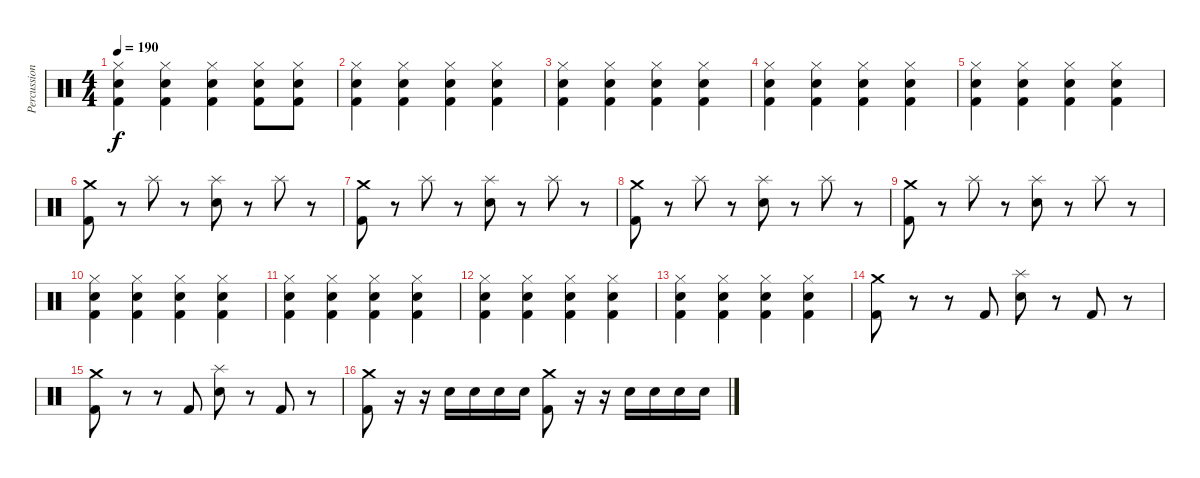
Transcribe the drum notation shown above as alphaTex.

\track ("Percussion" "Percussion") {instrument percussion}
\staff {score}
\articulation defaults
\ts (4 4)
\tempo 190
\clef neutral
\ks c
("Hi-Hat (closed)" "Electric Snare (hit)" "Kick (hit) 2").4{dy f} ("Hi-Hat (closed)" "Electric Snare (hit)" "Kick (hit) 2").4 ("Hi-Hat (closed)" "Electric Snare (hit)" "Kick (hit) 2").4 ("Hi-Hat (closed)" "Electric Snare (hit)" "Kick (hit) 2").8 ("Hi-Hat (closed)" "Electric Snare (hit)" "Kick (hit) 2").8 |
("Hi-Hat (closed)" "Electric Snare (hit)" "Kick (hit) 2").4 ("Hi-Hat (closed)" "Electric Snare (hit)" "Kick (hit) 2").4 ("Hi-Hat (closed)" "Electric Snare (hit)" "Kick (hit) 2").4 ("Hi-Hat (closed)" "Electric Snare (hit)" "Kick (hit) 2").4 |
("Hi-Hat (closed)" "Electric Snare (hit)" "Kick (hit) 2").4 ("Hi-Hat (closed)" "Electric Snare (hit)" "Kick (hit) 2").4 ("Hi-Hat (closed)" "Electric Snare (hit)" "Kick (hit) 2").4 ("Hi-Hat (closed)" "Electric Snare (hit)" "Kick (hit) 2").4 |
("Hi-Hat (closed)" "Electric Snare (hit)" "Kick (hit) 2").4 ("Hi-Hat (closed)" "Electric Snare (hit)" "Kick (hit) 2").4 ("Hi-Hat (closed)" "Electric Snare (hit)" "Kick (hit) 2").4 ("Hi-Hat (closed)" "Electric Snare (hit)" "Kick (hit) 2").4 |
("Hi-Hat (closed)" "Electric Snare (hit)" "Kick (hit) 2").4 ("Hi-Hat (closed)" "Electric Snare (hit)" "Kick (hit) 2").4 ("Hi-Hat (closed)" "Electric Snare (hit)" "Kick (hit) 2").4 ("Hi-Hat (closed)" "Electric Snare (hit)" "Kick (hit) 2").4 |
("Crash medium (hit)" "Kick (hit) 2").8 r.8 "Splash (hit)".8 r.8 ("Splash (hit)" "Electric Snare (hit)").8 r.8 "Splash (hit)".8 r.8 |
("Crash medium (hit)" "Kick (hit) 2").8 r.8 "Splash (hit)".8 r.8 ("Splash (hit)" "Electric Snare (hit)").8 r.8 "Splash (hit)".8 r.8 |
("Crash medium (hit)" "Kick (hit) 2").8 r.8 "Splash (hit)".8 r.8 ("Splash (hit)" "Electric Snare (hit)").8 r.8 "Splash (hit)".8 r.8 |
("Crash medium (hit)" "Kick (hit) 2").8 r.8 "Splash (hit)".8 r.8 ("Splash (hit)" "Electric Snare (hit)").8 r.8 "Splash (hit)".8 r.8 |
("Hi-Hat (closed)" "Electric Snare (hit)" "Kick (hit) 2").4 ("Hi-Hat (closed)" "Electric Snare (hit)" "Kick (hit) 2").4 ("Hi-Hat (closed)" "Electric Snare (hit)" "Kick (hit) 2").4 ("Hi-Hat (closed)" "Electric Snare (hit)" "Kick (hit) 2").4 |
("Hi-Hat (closed)" "Electric Snare (hit)" "Kick (hit) 2").4 ("Hi-Hat (closed)" "Electric Snare (hit)" "Kick (hit) 2").4 ("Hi-Hat (closed)" "Electric Snare (hit)" "Kick (hit) 2").4 ("Hi-Hat (closed)" "Electric Snare (hit)" "Kick (hit) 2").4 |
("Hi-Hat (closed)" "Electric Snare (hit)" "Kick (hit) 2").4 ("Hi-Hat (closed)" "Electric Snare (hit)" "Kick (hit) 2").4 ("Hi-Hat (closed)" "Electric Snare (hit)" "Kick (hit) 2").4 ("Hi-Hat (closed)" "Electric Snare (hit)" "Kick (hit) 2").4 |
("Hi-Hat (closed)" "Electric Snare (hit)" "Kick (hit) 2").4 ("Hi-Hat (closed)" "Electric Snare (hit)" "Kick (hit) 2").4 ("Hi-Hat (closed)" "Electric Snare (hit)" "Kick (hit) 2").4 ("Hi-Hat (closed)" "Electric Snare (hit)" "Kick (hit) 2").4 |
("Crash medium (hit)" "Kick (hit) 2").8 r.8 r.8 "Kick (hit) 2".8 ("Splash (hit)" "Electric Snare (hit)").8 r.8 "Kick (hit) 2".8 r.8 |
("Crash medium (hit)" "Kick (hit) 2").8 r.8 r.8 "Kick (hit) 2".8 ("Splash (hit)" "Electric Snare (hit)").8 r.8 "Kick (hit) 2".8 r.8 |
("Crash medium (hit)" "Kick (hit) 2").8 r.16 r.16 "Electric Snare (hit)".16 "Electric Snare (hit)".16 "Electric Snare (hit)".16 "Electric Snare (hit)".16 ("Crash medium (hit)" "Kick (hit) 2").8 r.16 r.16 "Electric Snare (hit)".16 "Electric Snare (hit)".16 "Electric Snare (hit)".16 "Electric Snare (hit)".16
